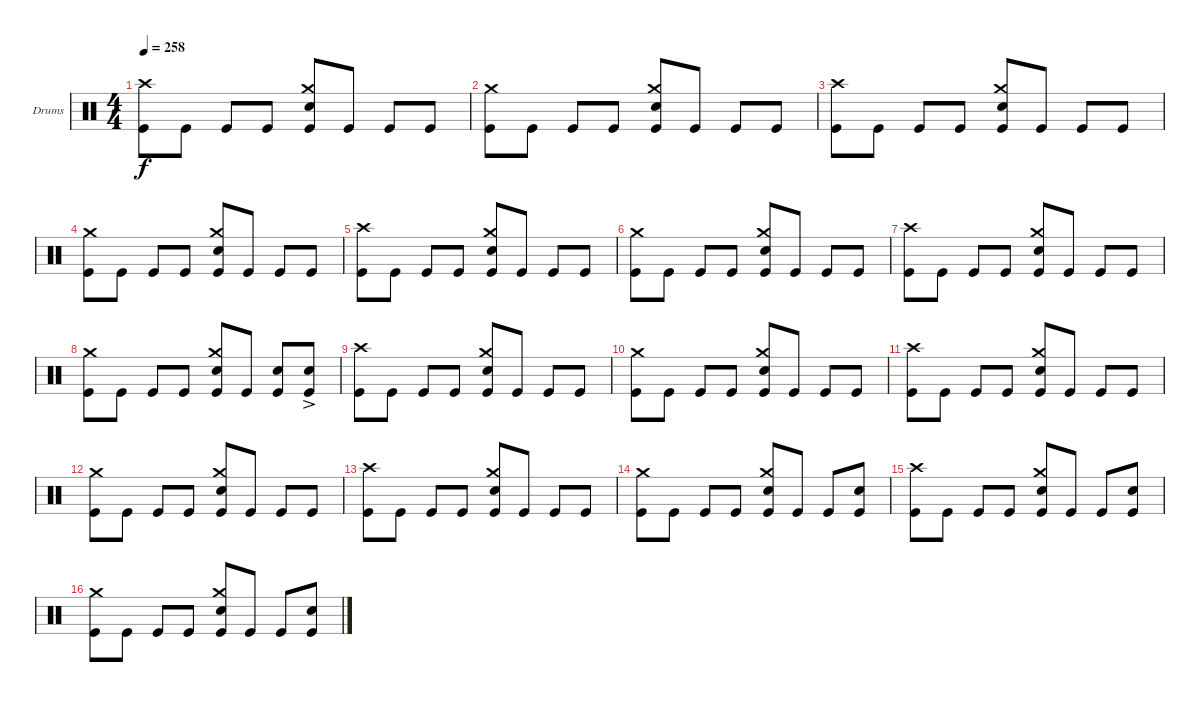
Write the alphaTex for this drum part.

\defaultSystemsLayout 4
\bracketExtendMode groupsimilarinstruments
\firstSystemTrackNameOrientation horizontal
\otherSystemsTrackNameOrientation horizontal
\track ("Drumkit" "Drums") {instrument percussion}
\staff {score}
\articulation defaults
\ts (4 4)
\tempo 258
\clef neutral
\ks c
("Kick (hit)" "Crash high (hit)").8{dy f} "Kick (hit)".8 "Kick (hit)".8 "Kick (hit)".8 ("Kick (hit)" "Crash medium (hit)" "Snare (hit) 2").8 "Kick (hit)".8 "Kick (hit)".8 "Kick (hit)".8 |
("Crash medium (hit)" "Kick (hit)").8 "Kick (hit)".8 "Kick (hit)".8 "Kick (hit)".8 ("Kick (hit)" "Snare (hit) 2" "Crash medium (hit)").8 "Kick (hit)".8 "Kick (hit)".8 "Kick (hit)".8 |
("Kick (hit)" "Crash high (hit)").8 "Kick (hit)".8 "Kick (hit)".8 "Kick (hit)".8 ("Kick (hit)" "Crash medium (hit)" "Snare (hit) 2").8 "Kick (hit)".8 "Kick (hit)".8 "Kick (hit)".8 |
("Crash medium (hit)" "Kick (hit)").8 "Kick (hit)".8 "Kick (hit)".8 "Kick (hit)".8 ("Kick (hit)" "Snare (hit) 2" "Crash medium (hit)").8 "Kick (hit)".8 "Kick (hit)".8 "Kick (hit)".8 |
("Kick (hit)" "Crash high (hit)").8 "Kick (hit)".8 "Kick (hit)".8 "Kick (hit)".8 ("Kick (hit)" "Crash medium (hit)" "Snare (hit) 2").8 "Kick (hit)".8 "Kick (hit)".8 "Kick (hit)".8 |
("Crash medium (hit)" "Kick (hit)").8 "Kick (hit)".8 "Kick (hit)".8 "Kick (hit)".8 ("Kick (hit)" "Snare (hit) 2" "Crash medium (hit)").8 "Kick (hit)".8 "Kick (hit)".8 "Kick (hit)".8 |
("Kick (hit)" "Crash high (hit)").8 "Kick (hit)".8 "Kick (hit)".8 "Kick (hit)".8 ("Kick (hit)" "Crash medium (hit)" "Snare (hit) 2").8 "Kick (hit)".8 "Kick (hit)".8 "Kick (hit)".8 |
("Crash medium (hit)" "Kick (hit)").8 "Kick (hit)".8 "Kick (hit)".8 "Kick (hit)".8 ("Kick (hit)" "Snare (hit) 2" "Crash medium (hit)").8 "Kick (hit)".8 ("Kick (hit)" "Snare (hit) 2").8 ("Kick (hit)" "Snare (hit) 2"{ac}).8 |
("Kick (hit)" "Crash high (hit)").8 "Kick (hit)".8 "Kick (hit)".8 "Kick (hit)".8 ("Kick (hit)" "Crash medium (hit)" "Snare (hit) 2").8 "Kick (hit)".8 "Kick (hit)".8 "Kick (hit)".8 |
("Crash medium (hit)" "Kick (hit)").8 "Kick (hit)".8 "Kick (hit)".8 "Kick (hit)".8 ("Kick (hit)" "Snare (hit) 2" "Crash medium (hit)").8 "Kick (hit)".8 "Kick (hit)".8 "Kick (hit)".8 |
("Kick (hit)" "Crash high (hit)").8 "Kick (hit)".8 "Kick (hit)".8 "Kick (hit)".8 ("Kick (hit)" "Crash medium (hit)" "Snare (hit) 2").8 "Kick (hit)".8 "Kick (hit)".8 "Kick (hit)".8 |
("Crash medium (hit)" "Kick (hit)").8 "Kick (hit)".8 "Kick (hit)".8 "Kick (hit)".8 ("Kick (hit)" "Snare (hit) 2" "Crash medium (hit)").8 "Kick (hit)".8 "Kick (hit)".8 "Kick (hit)".8 |
("Kick (hit)" "Crash high (hit)").8 "Kick (hit)".8 "Kick (hit)".8 "Kick (hit)".8 ("Kick (hit)" "Crash medium (hit)" "Snare (hit) 2").8 "Kick (hit)".8 "Kick (hit)".8 "Kick (hit)".8 |
("Crash medium (hit)" "Kick (hit)").8 "Kick (hit)".8 "Kick (hit)".8 "Kick (hit)".8 ("Kick (hit)" "Snare (hit) 2" "Crash medium (hit)").8 "Kick (hit)".8 "Kick (hit)".8 ("Kick (hit)" "Snare (hit) 2").8 |
("Kick (hit)" "Crash high (hit)").8 "Kick (hit)".8 "Kick (hit)".8 "Kick (hit)".8 ("Kick (hit)" "Crash medium (hit)" "Snare (hit) 2").8 "Kick (hit)".8 "Kick (hit)".8 ("Kick (hit)" "Snare (hit) 2").8 |
("Crash medium (hit)" "Kick (hit)").8 "Kick (hit)".8 "Kick (hit)".8 "Kick (hit)".8 ("Kick (hit)" "Snare (hit) 2" "Crash medium (hit)").8 "Kick (hit)".8 "Kick (hit)".8 ("Kick (hit)" "Snare (hit) 2").8
